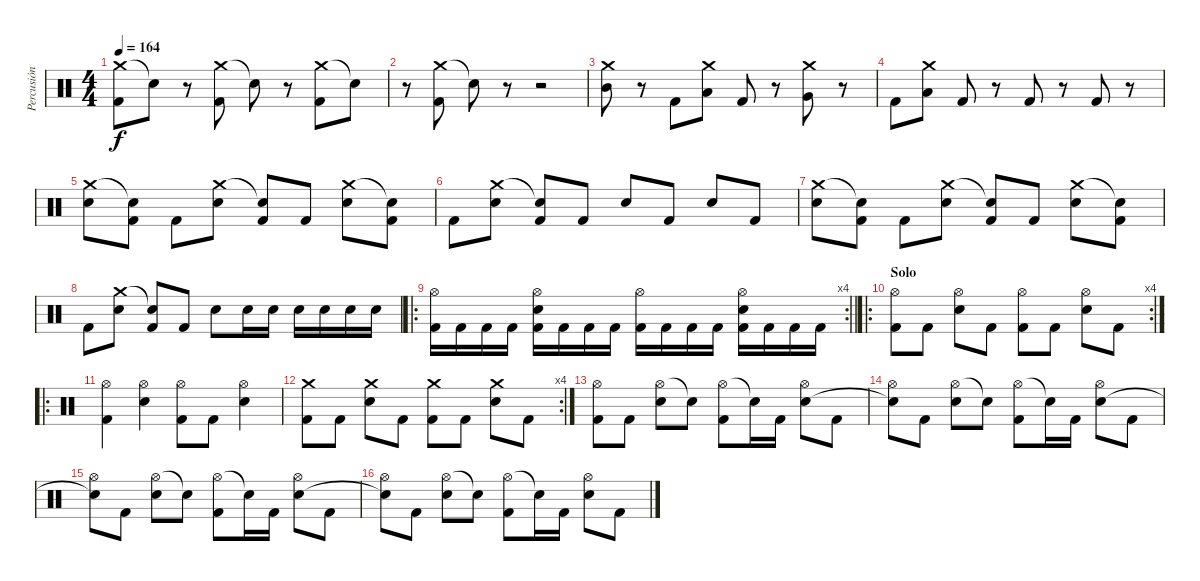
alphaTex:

\track ("Percusión" "Percusión") {instrument percussion}
\staff
\articulation defaults
\ts (4 4)
\tempo 164
\clef neutral
\ks c
("Crash medium (hit)" "Kick (hit) 2").8{dy f} "Snare (hit)"{t}.8 r.8 ("Crash medium (hit)" "Kick (hit) 2").8 "Snare (hit)"{t}.8 r.8 ("Crash medium (hit)" "Kick (hit) 2").8 "Snare (hit)"{t}.8 |
r.8 ("Crash medium (hit)" "Kick (hit) 2").8 "Snare (hit)"{t}.8 r.8 r.2 |
("Crash medium (hit)" "Mid Tom (hit)").8 r.8 "Kick (hit) 2".8 ("Crash medium (hit)" "Low Tom (hit)").8 "Kick (hit) 2".8 r.8 ("Crash medium (hit)" "Very Low Tom (hit)").8 r.8 |
"Kick (hit) 2".8 ("Crash medium (hit)" "Low Floor Tom (hit)").8 "Kick (hit) 2".8 r.8 "Kick (hit) 2".8 r.8 "Kick (hit) 2".8 r.8 |
("Crash medium (hit)" "Snare (hit) 2").8 ("Snare (hit)"{t} "Kick (hit) 2").8 "Kick (hit) 2".8 ("Crash medium (hit)" "Snare (hit) 2").8 ("Snare (hit)"{t} "Kick (hit) 2").8 "Kick (hit) 2".8 ("Crash medium (hit)" "Snare (hit) 2").8 ("Snare (hit)"{t} "Kick (hit) 2").8 |
"Kick (hit) 2".8 ("Crash medium (hit)" "Snare (hit) 2").8 ("Snare (hit)"{t} "Kick (hit) 2").8 "Kick (hit) 2".8 "Snare (hit) 2".8 "Kick (hit) 2".8 "Snare (hit) 2".8 "Kick (hit) 2".8 |
("Crash medium (hit)" "Snare (hit) 2").8 ("Snare (hit)"{t} "Kick (hit) 2").8 "Kick (hit) 2".8 ("Crash medium (hit)" "Snare (hit) 2").8 ("Snare (hit)"{t} "Kick (hit) 2").8 "Kick (hit) 2".8 ("Crash medium (hit)" "Snare (hit) 2").8 ("Snare (hit)"{t} "Kick (hit) 2").8 |
"Kick (hit) 2".8 ("Crash medium (hit)" "Snare (hit) 2").8 ("Snare (hit)"{t} "Kick (hit) 2").8 "Kick (hit) 2".8 "Snare (hit) 2".8 "Snare (hit) 2".16 "Snare (hit) 2".16 "Snare (hit) 2".16 "Snare (hit) 2".16 "Snare (hit) 2".16 "Snare (hit) 2".16 |
\ro
\rc 4
\barLineRight lightlight
("Hi-Hat (open)" "Kick (hit) 2").16 "Kick (hit) 2".16 "Kick (hit) 2".16 "Kick (hit) 2".16 ("Hi-Hat (open)" "Snare (hit) 2" "Kick (hit) 2").16 "Kick (hit) 2".16 "Kick (hit) 2".16 "Kick (hit) 2".16 ("Hi-Hat (open)" "Kick (hit) 2").16 "Kick (hit) 2".16 "Kick (hit) 2".16 "Kick (hit) 2".16 ("Hi-Hat (open)" "Snare (hit) 2" "Kick (hit) 2").16 "Kick (hit) 2".16 "Kick (hit) 2".16 "Kick (hit) 2".16 |
\ro
\rc 4
\section ("" "Solo")
("Hi-Hat (open)" "Kick (hit) 2").8 "Kick (hit) 2".8 ("Hi-Hat (open)" "Snare (hit) 2").8 "Kick (hit) 2".8 ("Hi-Hat (open)" "Kick (hit) 2").8 "Kick (hit) 2".8 ("Hi-Hat (open)" "Snare (hit) 2").8 "Kick (hit) 2".8 |
\ro
("Hi-Hat (open)" "Kick (hit) 2").4 ("Hi-Hat (open)" "Snare (hit) 2").4 ("Hi-Hat (open)" "Kick (hit) 2").8 "Kick (hit) 2".8 ("Hi-Hat (open)" "Snare (hit) 2").4 |
\rc 4
("Crash medium (hit)" "Kick (hit) 2").8 "Kick (hit) 2".8 ("Crash medium (hit)" "Snare (hit) 2").8 "Kick (hit) 2".8 ("Crash medium (hit)" "Kick (hit) 2").8 "Kick (hit) 2".8 ("Crash medium (hit)" "Snare (hit) 2").8 "Kick (hit) 2".8 |
("Hi-Hat (open)" "Kick (hit) 2").8 "Kick (hit) 2".8 ("Hi-Hat (open)" "Snare (hit) 2").8 "Snare (hit)"{t}.8 ("Hi-Hat (open)" "Kick (hit) 2").8 "Snare (hit)"{t}.16 "Kick (hit) 2".16 ("Hi-Hat (open)" "Snare (hit) 2").8 "Kick (hit) 2".8 |
("Hi-Hat (open)" "Snare (hit)"{t}).8 "Kick (hit) 2".8 ("Hi-Hat (open)" "Snare (hit) 2").8 "Snare (hit)"{t}.8 ("Hi-Hat (open)" "Kick (hit) 2").8 "Snare (hit)"{t}.16 "Kick (hit) 2".16 ("Hi-Hat (open)" "Snare (hit) 2").8 "Kick (hit) 2".8 |
("Hi-Hat (open)" "Snare (hit)"{t}).8 "Kick (hit) 2".8 ("Hi-Hat (open)" "Snare (hit) 2").8 "Snare (hit)"{t}.8 ("Hi-Hat (open)" "Kick (hit) 2").8 "Snare (hit)"{t}.16 "Kick (hit) 2".16 ("Hi-Hat (open)" "Snare (hit) 2").8 "Kick (hit) 2".8 |
("Hi-Hat (open)" "Snare (hit)"{t}).8 "Kick (hit) 2".8 ("Hi-Hat (open)" "Snare (hit) 2").8 "Snare (hit)"{t}.8 ("Hi-Hat (open)" "Kick (hit) 2").8 "Snare (hit)"{t}.16 "Kick (hit) 2".16 ("Hi-Hat (open)" "Snare (hit) 2").8 "Kick (hit) 2".8
